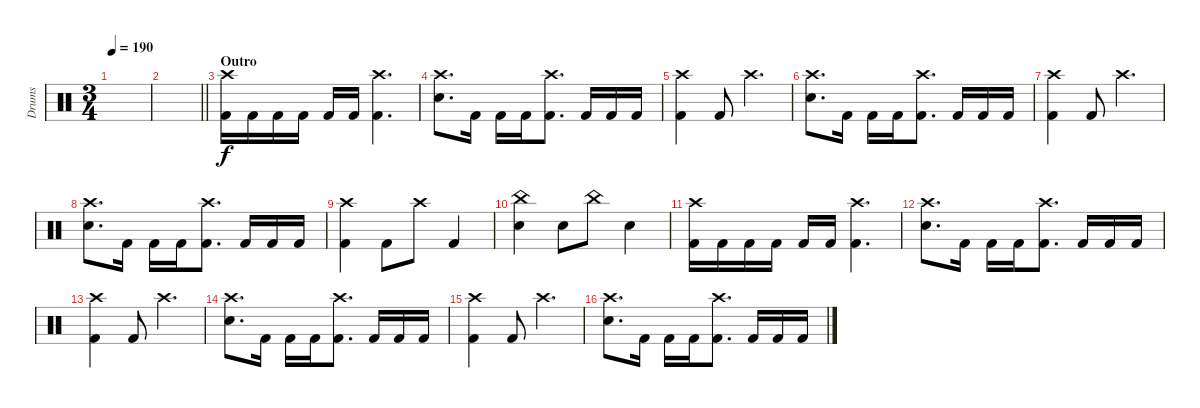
\track ("Drums" "Drums") {instrument percussion}
\staff {score}
\articulation defaults
\ts (3 4)
\tempo 190
\clef neutral
\ks c
|
\barLineRight lightlight
|
\section ("" "Outro")
("Crash high (hit)" "Kick (hit) 2").16 "Kick (hit) 2".16 "Kick (hit) 2".16 "Kick (hit) 2".16 "Kick (hit) 2".16 "Kick (hit) 2".16 ("Crash high (hit)" "Kick (hit) 2").4{d} |
("Crash high (hit)" "Snare (hit) 2").8{d} "Kick (hit) 2".16 "Kick (hit) 2".16 "Kick (hit) 2".16 ("Crash high (hit)" "Kick (hit) 2").8{d} "Kick (hit) 2".16 "Kick (hit) 2".16 "Kick (hit) 2".16 |
("Crash high (hit)" "Kick (hit) 2").4 "Kick (hit) 2".8 "Crash high (hit)".4{d} |
("Crash high (hit)" "Snare (hit) 2").8{d} "Kick (hit) 2".16 "Kick (hit) 2".16 "Kick (hit) 2".16 ("Crash high (hit)" "Kick (hit) 2").8{d} "Kick (hit) 2".16 "Kick (hit) 2".16 "Kick (hit) 2".16 |
("Crash high (hit)" "Kick (hit) 2").4 "Kick (hit) 2".8 "Crash high (hit)".4{d} |
("Crash high (hit)" "Snare (hit) 2").8{d} "Kick (hit) 2".16 "Kick (hit) 2".16 "Kick (hit) 2".16 ("Crash high (hit)" "Kick (hit) 2").8{d} "Kick (hit) 2".16 "Kick (hit) 2".16 "Kick (hit) 2".16 |
("Crash high (hit)" "Kick (hit) 2").4 "Kick (hit) 2".8 "Crash high (hit)".8 "Kick (hit) 2".4 |
("China (hit)" "Snare (hit) 2").4 "Snare (hit) 2".8 "China (hit)".8 "Snare (hit) 2".4 |
("Crash high (hit)" "Kick (hit) 2").16 "Kick (hit) 2".16 "Kick (hit) 2".16 "Kick (hit) 2".16 "Kick (hit) 2".16 "Kick (hit) 2".16 ("Crash high (hit)" "Kick (hit) 2").4{d} |
("Crash high (hit)" "Snare (hit) 2").8{d} "Kick (hit) 2".16 "Kick (hit) 2".16 "Kick (hit) 2".16 ("Crash high (hit)" "Kick (hit) 2").8{d} "Kick (hit) 2".16 "Kick (hit) 2".16 "Kick (hit) 2".16 |
("Crash high (hit)" "Kick (hit) 2").4 "Kick (hit) 2".8 "Crash high (hit)".4{d} |
("Crash high (hit)" "Snare (hit) 2").8{d} "Kick (hit) 2".16 "Kick (hit) 2".16 "Kick (hit) 2".16 ("Crash high (hit)" "Kick (hit) 2").8{d} "Kick (hit) 2".16 "Kick (hit) 2".16 "Kick (hit) 2".16 |
("Crash high (hit)" "Kick (hit) 2").4 "Kick (hit) 2".8 "Crash high (hit)".4{d} |
("Crash high (hit)" "Snare (hit) 2").8{d} "Kick (hit) 2".16 "Kick (hit) 2".16 "Kick (hit) 2".16 ("Crash high (hit)" "Kick (hit) 2").8{d} "Kick (hit) 2".16 "Kick (hit) 2".16 "Kick (hit) 2".16
